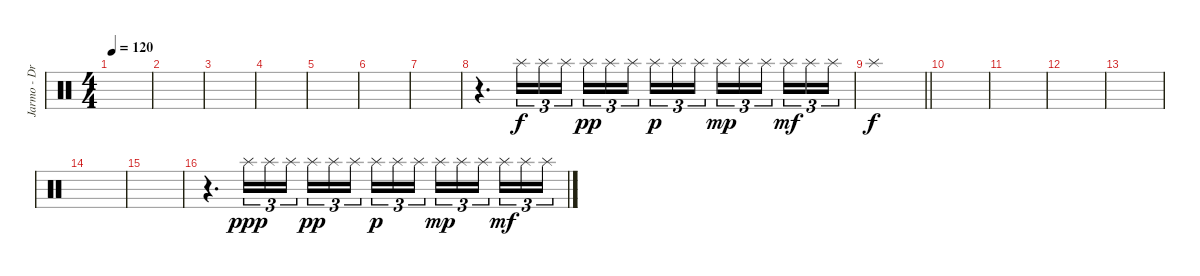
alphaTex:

\track ("Jarmo - Drums" "Jarmo - Dr") {instrument percussion}
\staff {score}
\articulation defaults
\ts (4 4)
\tempo 120
\clef neutral
\ks c
|
|
|
|
|
|
|
r.4{d} "Splash (hit)".16{tu (3 2)} "Splash (hit)".16{tu (3 2)} "Splash (hit)".16{tu (3 2)} "Splash (hit)".16{tu (3 2) dy pp} "Splash (hit)".16{tu (3 2)} "Splash (hit)".16{tu (3 2)} "Splash (hit)".16{tu (3 2) dy p} "Splash (hit)".16{tu (3 2)} "Splash (hit)".16{tu (3 2)} "Splash (hit)".16{tu (3 2) dy mp} "Splash (hit)".16{tu (3 2)} "Splash (hit)".16{tu (3 2)} "Splash (hit)".16{tu (3 2) dy mf} "Splash (hit)".16{tu (3 2)} "Splash (hit)".16{tu (3 2)} |
\barLineRight lightlight "Splash (hit)".1{dy f}
|
|
|
|
|
|
|
r.4{d} "Splash (hit)".16{tu (3 2) dy ppp} "Splash (hit)".16{tu (3 2)} "Splash (hit)".16{tu (3 2)} "Splash (hit)".16{tu (3 2) dy pp} "Splash (hit)".16{tu (3 2)} "Splash (hit)".16{tu (3 2)} "Splash (hit)".16{tu (3 2) dy p} "Splash (hit)".16{tu (3 2)} "Splash (hit)".16{tu (3 2)} "Splash (hit)".16{tu (3 2) dy mp} "Splash (hit)".16{tu (3 2)} "Splash (hit)".16{tu (3 2)} "Splash (hit)".16{tu (3 2) dy mf} "Splash (hit)".16{tu (3 2)} "Splash (hit)".16{tu (3 2)}
